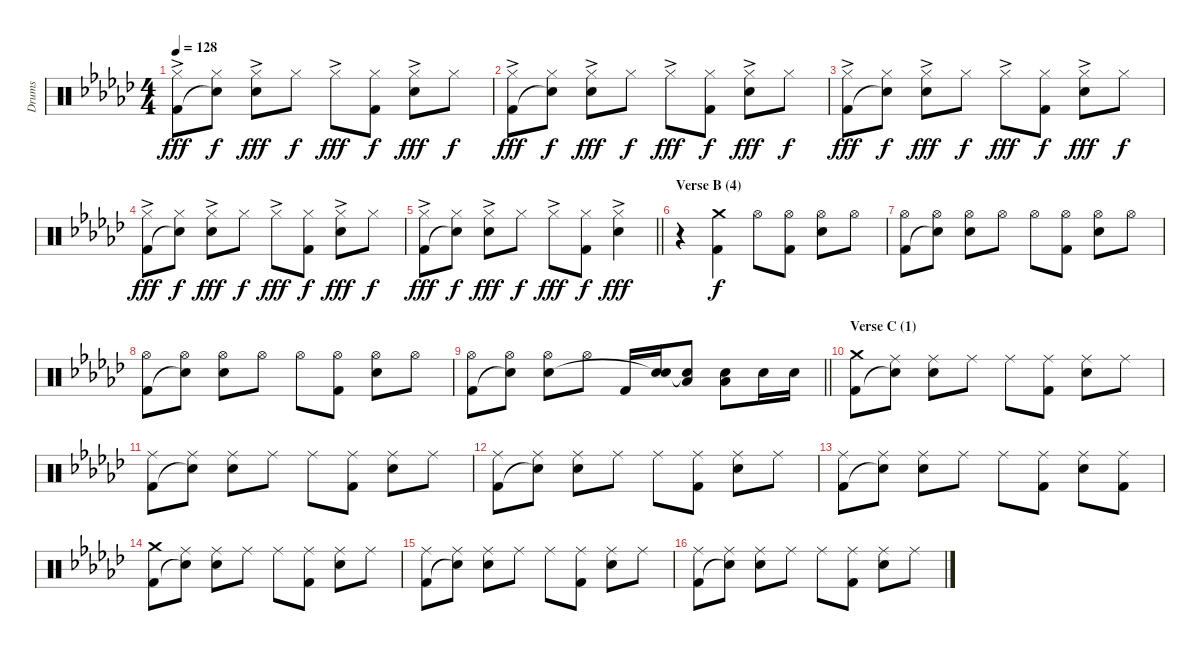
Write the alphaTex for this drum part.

\track ("Drums" "Drums") {instrument percussion}
\staff {score}
\articulation defaults
\ts (4 4)
\tempo 128
\clef neutral
\ks gb
("Hi-Hat (closed)"{ac} "Kick (hit) 2").8{dy fff} ("Hi-Hat (closed)" "Snare (hit)"{t}).8{dy f} ("Hi-Hat (closed)"{ac} "Electric Snare (hit)").8{dy fff} "Hi-Hat (closed)".8{dy f} "Hi-Hat (closed)"{ac}.8{dy fff} ("Hi-Hat (closed)" "Kick (hit) 2").8{dy f} ("Hi-Hat (closed)"{ac} "Electric Snare (hit)").8{dy fff} "Hi-Hat (closed)".8{dy f} |
("Hi-Hat (closed)"{ac} "Kick (hit) 2").8{dy fff} ("Hi-Hat (closed)" "Snare (hit)"{t}).8{dy f} ("Hi-Hat (closed)"{ac} "Electric Snare (hit)").8{dy fff} "Hi-Hat (closed)".8{dy f} "Hi-Hat (closed)"{ac}.8{dy fff} ("Hi-Hat (closed)" "Kick (hit) 2").8{dy f} ("Hi-Hat (closed)"{ac} "Electric Snare (hit)").8{dy fff} "Hi-Hat (closed)".8{dy f} |
("Hi-Hat (closed)"{ac} "Kick (hit) 2").8{dy fff} ("Hi-Hat (closed)" "Snare (hit)"{t}).8{dy f} ("Hi-Hat (closed)"{ac} "Electric Snare (hit)").8{dy fff} "Hi-Hat (closed)".8{dy f} "Hi-Hat (closed)"{ac}.8{dy fff} ("Hi-Hat (closed)" "Kick (hit) 2").8{dy f} ("Hi-Hat (closed)"{ac} "Electric Snare (hit)").8{dy fff} "Hi-Hat (closed)".8{dy f} |
("Hi-Hat (closed)"{ac} "Kick (hit) 2").8{dy fff} ("Hi-Hat (closed)" "Snare (hit)"{t}).8{dy f} ("Hi-Hat (closed)"{ac} "Electric Snare (hit)").8{dy fff} "Hi-Hat (closed)".8{dy f} "Hi-Hat (closed)"{ac}.8{dy fff} ("Hi-Hat (closed)" "Kick (hit) 2").8{dy f} ("Hi-Hat (closed)"{ac} "Electric Snare (hit)").8{dy fff} "Hi-Hat (closed)".8{dy f} |
\barLineRight lightlight
("Hi-Hat (closed)"{ac} "Kick (hit) 2").8{dy fff} ("Hi-Hat (closed)" "Snare (hit)"{t}).8{dy f} ("Hi-Hat (closed)"{ac} "Electric Snare (hit)").8{dy fff} "Hi-Hat (closed)".8{dy f} "Hi-Hat (closed)"{ac}.8{dy fff} ("Hi-Hat (closed)" "Kick (hit) 2").8{dy f} ("Hi-Hat (closed)"{ac} "Electric Snare (hit)").4{dy fff} |
\section ("" "Verse B (4)")
r.4 ("Crash medium (hit)" "Kick (hit) 2").4{dy f} "Hi-Hat (open)".8 ("Hi-Hat (open)" "Kick (hit) 2").8 ("Hi-Hat (open)" "Electric Snare (hit)").8 "Hi-Hat (open)".8 |
("Hi-Hat (open)" "Kick (hit) 2").8 ("Hi-Hat (open)" "Snare (hit)"{t}).8 ("Hi-Hat (open)" "Electric Snare (hit)").8 "Hi-Hat (open)".8 "Hi-Hat (open)".8 ("Hi-Hat (open)" "Kick (hit) 2").8 ("Hi-Hat (open)" "Electric Snare (hit)").8 "Hi-Hat (open)".8 |
("Hi-Hat (open)" "Kick (hit) 2").8 ("Hi-Hat (open)" "Snare (hit)"{t}).8 ("Hi-Hat (open)" "Electric Snare (hit)").8 "Hi-Hat (open)".8 "Hi-Hat (open)".8 ("Hi-Hat (open)" "Kick (hit) 2").8 ("Hi-Hat (open)" "Electric Snare (hit)").8 "Hi-Hat (open)".8 |
\barLineRight lightlight
("Hi-Hat (open)" "Kick (hit) 2").8 ("Hi-Hat (open)" "Snare (hit)"{t}).8 ("Hi-Hat (open)" "Electric Snare (hit)").8 "Hi-Hat (open)".8 "Kick (hit) 2".16 ("Electric Snare (hit)" "Snare (hit)"{t}).16 ("Low Floor Tom (hit)" "Snare (hit)"{t}).8 ("Electric Snare (hit)" "Low Floor Tom (hit)").8 "Electric Snare (hit)".16 "Electric Snare (hit)".16 |
\section ("" "Verse C (1)")
("Crash medium (hit)" "Kick (hit) 2").8 ("Ride (middle)" "Snare (hit)"{t}).8 ("Ride (middle)" "Electric Snare (hit)").8 "Ride (middle)".8 "Ride (middle)".8 ("Ride (middle)" "Kick (hit) 2").8 ("Ride (middle)" "Electric Snare (hit)").8 "Ride (middle)".8 |
("Ride (middle)" "Kick (hit) 2").8 ("Ride (middle)" "Snare (hit)"{t}).8 ("Ride (middle)" "Electric Snare (hit)").8 "Ride (middle)".8 "Ride (middle)".8 ("Ride (middle)" "Kick (hit) 2").8 ("Ride (middle)" "Electric Snare (hit)").8 "Ride (middle)".8 |
("Ride (middle)" "Kick (hit) 2").8 ("Ride (middle)" "Snare (hit)"{t}).8 ("Ride (middle)" "Electric Snare (hit)").8 "Ride (middle)".8 "Ride (middle)".8 ("Ride (middle)" "Kick (hit) 2").8 ("Ride (middle)" "Electric Snare (hit)").8 "Ride (middle)".8 |
("Ride (middle)" "Kick (hit) 2").8 ("Ride (middle)" "Snare (hit)"{t}).8 ("Ride (middle)" "Electric Snare (hit)").8 "Ride (middle)".8 "Ride (middle)".8 ("Ride (middle)" "Kick (hit) 2").8 ("Ride (middle)" "Electric Snare (hit)").8 ("Ride (middle)" "Kick (hit) 2").8 |
("Crash medium (hit)" "Kick (hit) 2").8 ("Ride (middle)" "Snare (hit)"{t}).8 ("Ride (middle)" "Electric Snare (hit)").8 "Ride (middle)".8 "Ride (middle)".8 ("Ride (middle)" "Kick (hit) 2").8 ("Ride (middle)" "Electric Snare (hit)").8 "Ride (middle)".8 |
("Ride (middle)" "Kick (hit) 2").8 ("Ride (middle)" "Snare (hit)"{t}).8 ("Ride (middle)" "Electric Snare (hit)").8 "Ride (middle)".8 "Ride (middle)".8 ("Ride (middle)" "Kick (hit) 2").8 ("Ride (middle)" "Electric Snare (hit)").8 "Ride (middle)".8 |
("Ride (middle)" "Kick (hit) 2").8 ("Ride (middle)" "Snare (hit)"{t}).8 ("Ride (middle)" "Electric Snare (hit)").8 "Ride (middle)".8 "Ride (middle)".8 ("Ride (middle)" "Kick (hit) 2").8 ("Ride (middle)" "Electric Snare (hit)").8 "Ride (middle)".8
